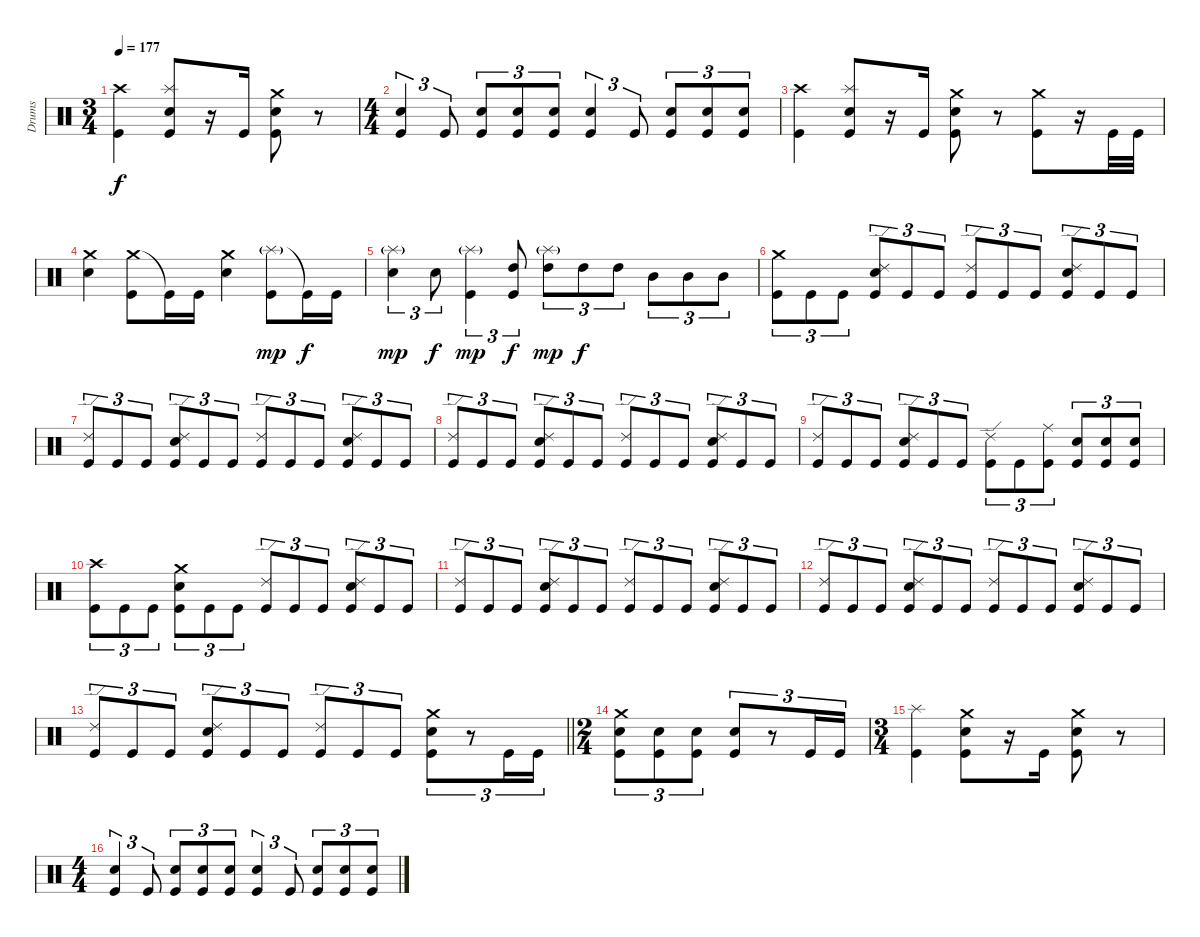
\track ("Drums" "Drums") {instrument percussion}
\staff {score}
\articulation defaults
\ts (3 4)
\tempo 177
\clef neutral
\ks c
("Crash high (hit)" "Kick (hit)").4{dy f} ("Splash (hit)" "Snare (hit) 2" "Kick (hit)").8 r.16 "Kick (hit)".16 ("Crash medium (hit)" "Snare (hit) 2" "Kick (hit)").8 r.8 |
\ts (4 4)
("Snare (hit) 2" "Kick (hit)").4{tu (3 2)} "Kick (hit)".8{tu (3 2)} ("Snare (hit) 2" "Kick (hit)").8{tu (3 2)} ("Snare (hit) 2" "Kick (hit)").8{tu (3 2)} ("Snare (hit) 2" "Kick (hit)").8{tu (3 2)} ("Snare (hit) 2" "Kick (hit)").4{tu (3 2)} "Kick (hit)".8{tu (3 2)} ("Snare (hit) 2" "Kick (hit)").8{tu (3 2)} ("Snare (hit) 2" "Kick (hit)").8{tu (3 2)} ("Snare (hit) 2" "Kick (hit)").8{tu (3 2)} |
("Crash high (hit)" "Kick (hit)").4 ("Splash (hit)" "Snare (hit) 2" "Kick (hit)").8 r.16 "Kick (hit)".16 ("Crash medium (hit)" "Snare (hit) 2" "Kick (hit)").8 r.8 ("Crash medium (hit)" "Kick (hit)").8 r.16 "Kick (hit)".32 "Kick (hit)".32 |
("Crash medium (hit)" "Snare (hit) 2").4 ("Crash medium (hit)" "Kick (hit)").8 "Kick (hit)"{t}.16 "Kick (hit)".16 ("Crash medium (hit)" "Snare (hit) 2").4 ("Splash (hit)"{g} "Kick (hit)").8{dy mp} "Kick (hit)"{t}.16{dy f} "Kick (hit)".16 |
("Splash (hit)"{g} "Snare (hit) 2").4{tu (3 2) dy mp} "Snare (hit) 2".8{tu (3 2) dy f} ("Splash (hit)"{g} "Kick (hit)").4{tu (3 2) dy mp} ("High Tom (hit)" "Kick (hit)").8{tu (3 2) dy f} ("Splash (hit)"{g} "High Tom (hit)").8{tu (3 2) dy mp} "High Tom (hit)".8{tu (3 2) dy f} "High Tom (hit)".8{tu (3 2)} "Mid Tom (hit)".8{tu (3 2)} "Mid Tom (hit)".8{tu (3 2)} "Mid Tom (hit)".8{tu (3 2)} |
("Crash medium (hit)" "Kick (hit)").8{tu (3 2)} "Kick (hit)".8{tu (3 2)} "Kick (hit)".8{tu (3 2)} ("Ride (edge) 2" "Snare (hit) 2" "Kick (hit)").8{tu (3 2)} "Kick (hit)".8{tu (3 2)} "Kick (hit)".8{tu (3 2)} ("Ride (edge) 2" "Kick (hit)").8{tu (3 2)} "Kick (hit)".8{tu (3 2)} "Kick (hit)".8{tu (3 2)} ("Ride (edge) 2" "Snare (hit) 2" "Kick (hit)").8{tu (3 2)} "Kick (hit)".8{tu (3 2)} "Kick (hit)".8{tu (3 2)} |
("Ride (edge) 2" "Kick (hit)").8{tu (3 2)} "Kick (hit)".8{tu (3 2)} "Kick (hit)".8{tu (3 2)} ("Ride (edge) 2" "Snare (hit) 2" "Kick (hit)").8{tu (3 2)} "Kick (hit)".8{tu (3 2)} "Kick (hit)".8{tu (3 2)} ("Ride (edge) 2" "Kick (hit)").8{tu (3 2)} "Kick (hit)".8{tu (3 2)} "Kick (hit)".8{tu (3 2)} ("Ride (edge) 2" "Snare (hit) 2" "Kick (hit)").8{tu (3 2)} "Kick (hit)".8{tu (3 2)} "Kick (hit)".8{tu (3 2)} |
("Ride (edge) 2" "Kick (hit)").8{tu (3 2)} "Kick (hit)".8{tu (3 2)} "Kick (hit)".8{tu (3 2)} ("Ride (edge) 2" "Snare (hit) 2" "Kick (hit)").8{tu (3 2)} "Kick (hit)".8{tu (3 2)} "Kick (hit)".8{tu (3 2)} ("Ride (edge) 2" "Kick (hit)").8{tu (3 2)} "Kick (hit)".8{tu (3 2)} "Kick (hit)".8{tu (3 2)} ("Ride (edge) 2" "Snare (hit) 2" "Kick (hit)").8{tu (3 2)} "Kick (hit)".8{tu (3 2)} "Kick (hit)".8{tu (3 2)} |
("Ride (edge) 2" "Kick (hit)").8{tu (3 2)} "Kick (hit)".8{tu (3 2)} "Kick (hit)".8{tu (3 2)} ("Ride (edge) 2" "Snare (hit) 2" "Kick (hit)").8{tu (3 2)} "Kick (hit)".8{tu (3 2)} "Kick (hit)".8{tu (3 2)} ("Ride (edge) 2" "Kick (hit)").8{tu (3 2)} "Kick (hit)".8{tu (3 2)} ("Ride (middle)" "Kick (hit)").8{tu (3 2)} ("Snare (hit) 2" "Kick (hit)").8{tu (3 2)} ("Snare (hit) 2" "Kick (hit)").8{tu (3 2)} ("Snare (hit) 2" "Kick (hit)").8{tu (3 2)} |
("Crash high (hit)" "Kick (hit)").8{tu (3 2)} "Kick (hit)".8{tu (3 2)} "Kick (hit)".8{tu (3 2)} ("Crash medium (hit)" "Snare (hit) 2" "Kick (hit)").8{tu (3 2)} "Kick (hit)".8{tu (3 2)} "Kick (hit)".8{tu (3 2)} ("Ride (edge) 2" "Kick (hit)").8{tu (3 2)} "Kick (hit)".8{tu (3 2)} "Kick (hit)".8{tu (3 2)} ("Ride (edge) 2" "Snare (hit) 2" "Kick (hit)").8{tu (3 2)} "Kick (hit)".8{tu (3 2)} "Kick (hit)".8{tu (3 2)} |
("Ride (edge) 2" "Kick (hit)").8{tu (3 2)} "Kick (hit)".8{tu (3 2)} "Kick (hit)".8{tu (3 2)} ("Ride (edge) 2" "Snare (hit) 2" "Kick (hit)").8{tu (3 2)} "Kick (hit)".8{tu (3 2)} "Kick (hit)".8{tu (3 2)} ("Ride (edge) 2" "Kick (hit)").8{tu (3 2)} "Kick (hit)".8{tu (3 2)} "Kick (hit)".8{tu (3 2)} ("Ride (edge) 2" "Snare (hit) 2" "Kick (hit)").8{tu (3 2)} "Kick (hit)".8{tu (3 2)} "Kick (hit)".8{tu (3 2)} |
("Ride (edge) 2" "Kick (hit)").8{tu (3 2)} "Kick (hit)".8{tu (3 2)} "Kick (hit)".8{tu (3 2)} ("Ride (edge) 2" "Snare (hit) 2" "Kick (hit)").8{tu (3 2)} "Kick (hit)".8{tu (3 2)} "Kick (hit)".8{tu (3 2)} ("Ride (edge) 2" "Kick (hit)").8{tu (3 2)} "Kick (hit)".8{tu (3 2)} "Kick (hit)".8{tu (3 2)} ("Ride (edge) 2" "Snare (hit) 2" "Kick (hit)").8{tu (3 2)} "Kick (hit)".8{tu (3 2)} "Kick (hit)".8{tu (3 2)} |
\barLineRight lightlight
("Ride (edge) 2" "Kick (hit)").8{tu (3 2)} "Kick (hit)".8{tu (3 2)} "Kick (hit)".8{tu (3 2)} ("Ride (edge) 2" "Snare (hit) 2" "Kick (hit)").8{tu (3 2)} "Kick (hit)".8{tu (3 2)} "Kick (hit)".8{tu (3 2)} ("Ride (edge) 2" "Kick (hit)").8{tu (3 2)} "Kick (hit)".8{tu (3 2)} "Kick (hit)".8{tu (3 2)} ("Crash medium (hit)" "Snare (hit) 2" "Kick (hit)").8{tu (3 2)} r.8{tu (3 2)} "Kick (hit)".16{tu (3 2)} "Kick (hit)".16{tu (3 2)} |
\ts (2 4)
("Crash medium (hit)" "Snare (hit) 2" "Kick (hit)").8{tu (3 2)} ("Snare (hit) 2" "Kick (hit)").8{tu (3 2)} ("Snare (hit) 2" "Kick (hit)").8{tu (3 2)} ("Snare (hit) 2" "Kick (hit)").8{tu (3 2)} r.8{tu (3 2)} "Kick (hit)".16{tu (3 2)} "Kick (hit)".16{tu (3 2)} |
\ts (3 4)
("Splash (hit)" "Kick (hit)").4 ("Crash medium (hit)" "Snare (hit) 2" "Kick (hit)").8 r.16 "Kick (hit)".16 ("Crash medium (hit)" "Snare (hit) 2" "Kick (hit)").8 r.8 |
\ts (4 4)
("Snare (hit) 2" "Kick (hit)").4{tu (3 2)} "Kick (hit)".8{tu (3 2)} ("Snare (hit) 2" "Kick (hit)").8{tu (3 2)} ("Snare (hit) 2" "Kick (hit)").8{tu (3 2)} ("Snare (hit) 2" "Kick (hit)").8{tu (3 2)} ("Snare (hit) 2" "Kick (hit)").4{tu (3 2)} "Kick (hit)".8{tu (3 2)} ("Snare (hit) 2" "Kick (hit)").8{tu (3 2)} ("Snare (hit) 2" "Kick (hit)").8{tu (3 2)} ("Snare (hit) 2" "Kick (hit)").8{tu (3 2)}
